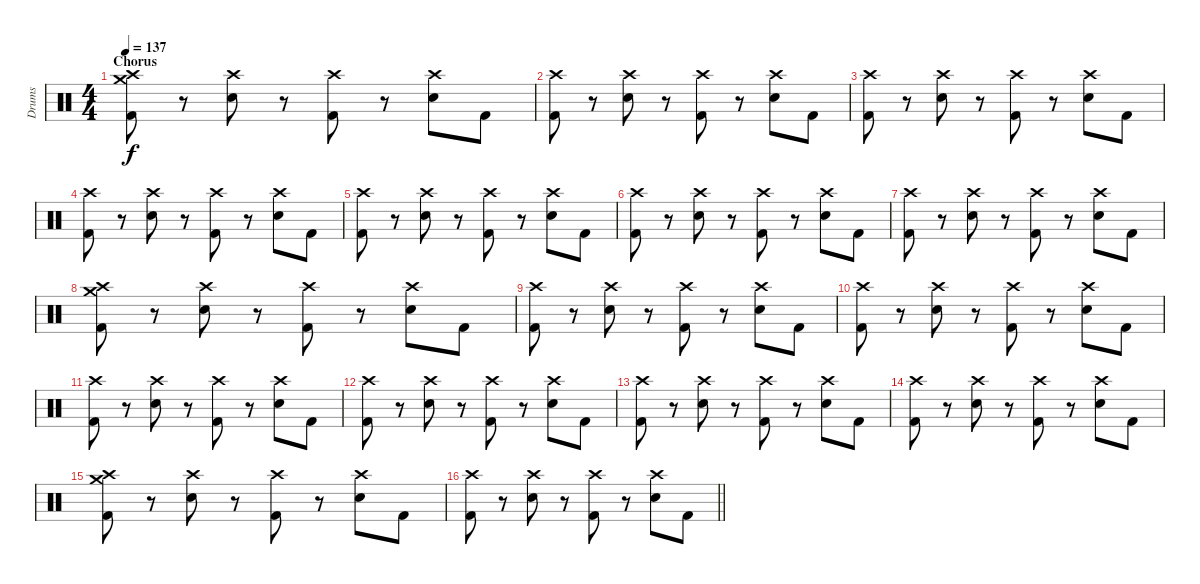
\track ("Drums" "Drums") {instrument percussion}
\staff {score}
\articulation defaults
\ts (4 4)
\section ("" "Chorus")
\tempo 137
\clef neutral
\ks c
("Crash high (hit)" "Kick (hit) 2" "Crash medium (hit)").8{dy f} r.8 ("Crash high (hit)" "Electric Snare (hit)").8 r.8 ("Crash high (hit)" "Kick (hit) 2").8 r.8 ("Crash high (hit)" "Electric Snare (hit)").8 "Kick (hit) 2".8 |
("Crash high (hit)" "Kick (hit) 2").8 r.8 ("Crash high (hit)" "Electric Snare (hit)").8 r.8 ("Crash high (hit)" "Kick (hit) 2").8 r.8 ("Crash high (hit)" "Electric Snare (hit)").8 "Kick (hit) 2".8 |
("Crash high (hit)" "Kick (hit) 2").8 r.8 ("Crash high (hit)" "Electric Snare (hit)").8 r.8 ("Crash high (hit)" "Kick (hit) 2").8 r.8 ("Crash high (hit)" "Electric Snare (hit)").8 "Kick (hit) 2".8 |
("Crash high (hit)" "Kick (hit) 2").8 r.8 ("Crash high (hit)" "Electric Snare (hit)").8 r.8 ("Crash high (hit)" "Kick (hit) 2").8 r.8 ("Crash high (hit)" "Electric Snare (hit)").8 "Kick (hit) 2".8 |
("Crash high (hit)" "Kick (hit) 2").8 r.8 ("Crash high (hit)" "Electric Snare (hit)").8 r.8 ("Crash high (hit)" "Kick (hit) 2").8 r.8 ("Crash high (hit)" "Electric Snare (hit)").8 "Kick (hit) 2".8 |
("Crash high (hit)" "Kick (hit) 2").8 r.8 ("Crash high (hit)" "Electric Snare (hit)").8 r.8 ("Crash high (hit)" "Kick (hit) 2").8 r.8 ("Crash high (hit)" "Electric Snare (hit)").8 "Kick (hit) 2".8 |
("Crash high (hit)" "Kick (hit) 2").8 r.8 ("Crash high (hit)" "Electric Snare (hit)").8 r.8 ("Crash high (hit)" "Kick (hit) 2").8 r.8 ("Crash high (hit)" "Electric Snare (hit)").8 "Kick (hit) 2".8 |
("Crash high (hit)" "Kick (hit) 2" "Crash medium (hit)").8 r.8 ("Crash high (hit)" "Electric Snare (hit)").8 r.8 ("Crash high (hit)" "Kick (hit) 2").8 r.8 ("Crash high (hit)" "Electric Snare (hit)").8 "Kick (hit) 2".8 |
("Crash high (hit)" "Kick (hit) 2").8 r.8 ("Crash high (hit)" "Electric Snare (hit)").8 r.8 ("Crash high (hit)" "Kick (hit) 2").8 r.8 ("Crash high (hit)" "Electric Snare (hit)").8 "Kick (hit) 2".8 |
("Crash high (hit)" "Kick (hit) 2").8 r.8 ("Crash high (hit)" "Electric Snare (hit)").8 r.8 ("Crash high (hit)" "Kick (hit) 2").8 r.8 ("Crash high (hit)" "Electric Snare (hit)").8 "Kick (hit) 2".8 |
("Crash high (hit)" "Kick (hit) 2").8 r.8 ("Crash high (hit)" "Electric Snare (hit)").8 r.8 ("Crash high (hit)" "Kick (hit) 2").8 r.8 ("Crash high (hit)" "Electric Snare (hit)").8 "Kick (hit) 2".8 |
("Crash high (hit)" "Kick (hit) 2").8 r.8 ("Crash high (hit)" "Electric Snare (hit)").8 r.8 ("Crash high (hit)" "Kick (hit) 2").8 r.8 ("Crash high (hit)" "Electric Snare (hit)").8 "Kick (hit) 2".8 |
("Crash high (hit)" "Kick (hit) 2").8 r.8 ("Crash high (hit)" "Electric Snare (hit)").8 r.8 ("Crash high (hit)" "Kick (hit) 2").8 r.8 ("Crash high (hit)" "Electric Snare (hit)").8 "Kick (hit) 2".8 |
("Crash high (hit)" "Kick (hit) 2").8 r.8 ("Crash high (hit)" "Electric Snare (hit)").8 r.8 ("Crash high (hit)" "Kick (hit) 2").8 r.8 ("Crash high (hit)" "Electric Snare (hit)").8 "Kick (hit) 2".8 |
("Crash high (hit)" "Kick (hit) 2" "Crash medium (hit)").8 r.8 ("Crash high (hit)" "Electric Snare (hit)").8 r.8 ("Crash high (hit)" "Kick (hit) 2").8 r.8 ("Crash high (hit)" "Electric Snare (hit)").8 "Kick (hit) 2".8 |
\barLineRight lightlight
("Crash high (hit)" "Kick (hit) 2").8 r.8 ("Crash high (hit)" "Electric Snare (hit)").8 r.8 ("Crash high (hit)" "Kick (hit) 2").8 r.8 ("Crash high (hit)" "Electric Snare (hit)").8 "Kick (hit) 2".8
